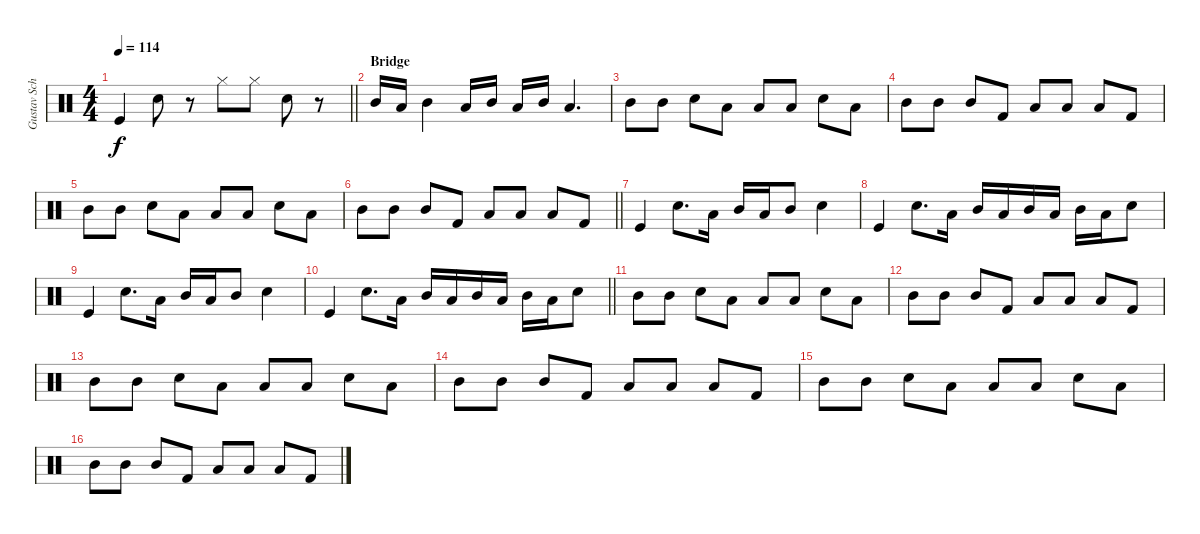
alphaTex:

\track ("Gustav Schäfer" "Gustav Sch") {instrument percussion}
\staff {score}
\articulation defaults
\ts (4 4)
\tempo 114
\clef neutral
\barLineRight lightlight
\ks c "Kick (hit)".4{dy f} "Electric Snare (hit)".8
r.8 "Hi-Hat (closed)".8 "Hi-Hat (closed)".8 "Electric Snare (hit)".8 r.8 |
\section ("" "Bridge")
"Mid Tom (hit)".16 "Low Tom (hit)".16 "Mid Tom (hit)".4 "Low Tom (hit)".16 "Mid Tom (hit)".16 "Low Tom (hit)".16 "Mid Tom (hit)".16 "Low Tom (hit)".4{d} |
"Mid Tom (hit)".8 "Mid Tom (hit)".8 "Electric Snare (hit)".8 "Low Tom (hit)".8 "Low Tom (hit)".8 "Low Tom (hit)".8 "Electric Snare (hit)".8 "Low Tom (hit)".8 |
"Mid Tom (hit)".8 "Mid Tom (hit)".8 "Mid Tom (hit)".8 "Kick (hit) 2".8 "Low Tom (hit)".8 "Low Tom (hit)".8 "Low Tom (hit)".8 "Kick (hit) 2".8 |
"Mid Tom (hit)".8 "Mid Tom (hit)".8 "Electric Snare (hit)".8 "Low Tom (hit)".8 "Low Tom (hit)".8 "Low Tom (hit)".8 "Electric Snare (hit)".8 "Low Tom (hit)".8 |
\barLineRight lightlight "Mid Tom (hit)".8 "Mid Tom (hit)".8 "Mid Tom (hit)".8 "Kick (hit) 2".8 "Low Tom (hit)".8 "Low Tom (hit)".8 "Low Tom (hit)".8 "Kick (hit) 2".8
|
"Kick (hit)".4 "Electric Snare (hit)".8{d} "Low Tom (hit)".16 "Mid Tom (hit)".16 "Low Tom (hit)".16 "Mid Tom (hit)".8 "Electric Snare (hit)".4 |
"Kick (hit)".4 "Electric Snare (hit)".8{d} "Low Tom (hit)".16 "Mid Tom (hit)".16 "Low Tom (hit)".16 "Mid Tom (hit)".16 "Low Tom (hit)".16 "Mid Tom (hit)".16 "Low Tom (hit)".16 "Electric Snare (hit)".8 |
"Kick (hit)".4 "Electric Snare (hit)".8{d} "Low Tom (hit)".16 "Mid Tom (hit)".16 "Low Tom (hit)".16 "Mid Tom (hit)".8 "Electric Snare (hit)".4 |
\barLineRight lightlight "Kick (hit)".4 "Electric Snare (hit)".8{d} "Low Tom (hit)".16 "Mid Tom (hit)".16 "Low Tom (hit)".16 "Mid Tom (hit)".16 "Low Tom (hit)".16 "Mid Tom (hit)".16 "Low Tom (hit)".16 "Electric Snare (hit)".8
|
"Mid Tom (hit)".8 "Mid Tom (hit)".8 "Electric Snare (hit)".8 "Low Tom (hit)".8 "Low Tom (hit)".8 "Low Tom (hit)".8 "Electric Snare (hit)".8 "Low Tom (hit)".8 |
"Mid Tom (hit)".8 "Mid Tom (hit)".8 "Mid Tom (hit)".8 "Kick (hit) 2".8 "Low Tom (hit)".8 "Low Tom (hit)".8 "Low Tom (hit)".8 "Kick (hit) 2".8 |
"Mid Tom (hit)".8 "Mid Tom (hit)".8 "Electric Snare (hit)".8 "Low Tom (hit)".8 "Low Tom (hit)".8 "Low Tom (hit)".8 "Electric Snare (hit)".8 "Low Tom (hit)".8 |
"Mid Tom (hit)".8 "Mid Tom (hit)".8 "Mid Tom (hit)".8 "Kick (hit) 2".8 "Low Tom (hit)".8 "Low Tom (hit)".8 "Low Tom (hit)".8 "Kick (hit) 2".8 |
"Mid Tom (hit)".8 "Mid Tom (hit)".8 "Electric Snare (hit)".8 "Low Tom (hit)".8 "Low Tom (hit)".8 "Low Tom (hit)".8 "Electric Snare (hit)".8 "Low Tom (hit)".8 |
"Mid Tom (hit)".8 "Mid Tom (hit)".8 "Mid Tom (hit)".8 "Kick (hit) 2".8 "Low Tom (hit)".8 "Low Tom (hit)".8 "Low Tom (hit)".8 "Kick (hit) 2".8
